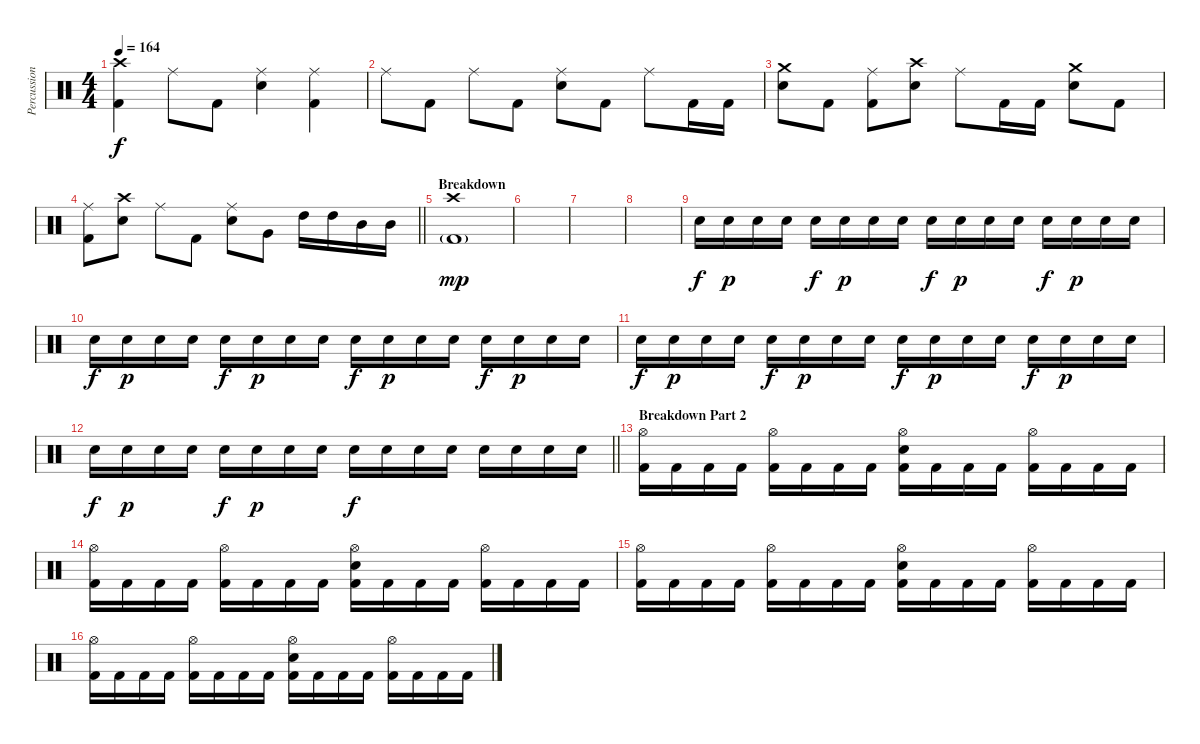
\track ("Percussions" "Percussion") {instrument percussion}
\staff {score}
\articulation defaults
\ts (4 4)
\tempo 164
\clef neutral
\ks c
("Crash high (hit)" "Kick (hit) 2").4{dy f} "Ride (middle)".8 "Kick (hit) 2".8 ("Ride (middle)" "Snare (hit) 2").4 ("Ride (middle)" "Kick (hit) 2").4 |
"Ride (middle)".8 "Kick (hit) 2".8 "Ride (middle)".8 "Kick (hit) 2".8 ("Ride (middle)" "Snare (hit) 2").8 "Kick (hit) 2".8 "Ride (middle)".8 "Kick (hit) 2".16 "Kick (hit) 2".16 |
("Crash medium (hit)" "Snare (hit) 2").8 "Kick (hit) 2".8 ("Ride (middle)" "Kick (hit) 2").8 ("Crash high (hit)" "Snare (hit) 2").8 "Ride (middle)".8 "Kick (hit) 2".16 "Kick (hit) 2".16 ("Crash medium (hit)" "Snare (hit) 2").8 "Kick (hit) 2".8 |
\barLineRight lightlight
("Ride (middle)" "Kick (hit) 2").8 ("Crash high (hit)" "Snare (hit) 2").8 "Ride (middle)".8 "Kick (hit) 2".8 ("Ride (middle)" "Snare (hit) 2").8 "Very Low Tom (hit)".8 "High Tom (hit)".16 "High Tom (hit)".16 "Mid Tom (hit)".16 "Mid Tom (hit)".16 |
\section ("" "Breakdown")
("Crash high (hit)" "Kick (hit) 2"{g}).1{dy mp} |
|
|
|
"Snare (hit) 2".16{dy f} "Snare (hit) 2".16{dy p} "Snare (hit) 2".16 "Snare (hit) 2".16 "Snare (hit) 2".16{dy f} "Snare (hit) 2".16{dy p} "Snare (hit) 2".16 "Snare (hit) 2".16 "Snare (hit) 2".16{dy f} "Snare (hit) 2".16{dy p} "Snare (hit) 2".16 "Snare (hit) 2".16 "Snare (hit) 2".16{dy f} "Snare (hit) 2".16{dy p} "Snare (hit) 2".16 "Snare (hit) 2".16 |
"Snare (hit) 2".16{dy f} "Snare (hit) 2".16{dy p} "Snare (hit) 2".16 "Snare (hit) 2".16 "Snare (hit) 2".16{dy f} "Snare (hit) 2".16{dy p} "Snare (hit) 2".16 "Snare (hit) 2".16 "Snare (hit) 2".16{dy f} "Snare (hit) 2".16{dy p} "Snare (hit) 2".16 "Snare (hit) 2".16 "Snare (hit) 2".16{dy f} "Snare (hit) 2".16{dy p} "Snare (hit) 2".16 "Snare (hit) 2".16 |
"Snare (hit) 2".16{dy f} "Snare (hit) 2".16{dy p} "Snare (hit) 2".16 "Snare (hit) 2".16 "Snare (hit) 2".16{dy f} "Snare (hit) 2".16{dy p} "Snare (hit) 2".16 "Snare (hit) 2".16 "Snare (hit) 2".16{dy f} "Snare (hit) 2".16{dy p} "Snare (hit) 2".16 "Snare (hit) 2".16 "Snare (hit) 2".16{dy f} "Snare (hit) 2".16{dy p} "Snare (hit) 2".16 "Snare (hit) 2".16 |
\barLineRight lightlight "Snare (hit) 2".16{dy f} "Snare (hit) 2".16{dy p} "Snare (hit) 2".16 "Snare (hit) 2".16 "Snare (hit) 2".16{dy f} "Snare (hit) 2".16{dy p} "Snare (hit) 2".16 "Snare (hit) 2".16 "Snare (hit) 2".16{dy f} "Snare (hit) 2".16 "Snare (hit) 2".16 "Snare (hit) 2".16 "Snare (hit) 2".16 "Snare (hit) 2".16 "Snare (hit) 2".16 "Snare (hit) 2".16
|
\section ("" "Breakdown Part 2")
("Hi-Hat (open)" "Kick (hit) 2").16 "Kick (hit) 2".16 "Kick (hit) 2".16 "Kick (hit) 2".16 ("Hi-Hat (open)" "Kick (hit) 2").16 "Kick (hit) 2".16 "Kick (hit) 2".16 "Kick (hit) 2".16 ("Hi-Hat (open)" "Snare (hit) 2" "Kick (hit) 2").16 "Kick (hit) 2".16 "Kick (hit) 2".16 "Kick (hit) 2".16 ("Hi-Hat (open)" "Kick (hit) 2").16 "Kick (hit) 2".16 "Kick (hit) 2".16 "Kick (hit) 2".16 |
("Hi-Hat (open)" "Kick (hit) 2").16 "Kick (hit) 2".16 "Kick (hit) 2".16 "Kick (hit) 2".16 ("Hi-Hat (open)" "Kick (hit) 2").16 "Kick (hit) 2".16 "Kick (hit) 2".16 "Kick (hit) 2".16 ("Hi-Hat (open)" "Snare (hit) 2" "Kick (hit) 2").16 "Kick (hit) 2".16 "Kick (hit) 2".16 "Kick (hit) 2".16 ("Hi-Hat (open)" "Kick (hit) 2").16 "Kick (hit) 2".16 "Kick (hit) 2".16 "Kick (hit) 2".16 |
("Hi-Hat (open)" "Kick (hit) 2").16 "Kick (hit) 2".16 "Kick (hit) 2".16 "Kick (hit) 2".16 ("Hi-Hat (open)" "Kick (hit) 2").16 "Kick (hit) 2".16 "Kick (hit) 2".16 "Kick (hit) 2".16 ("Hi-Hat (open)" "Snare (hit) 2" "Kick (hit) 2").16 "Kick (hit) 2".16 "Kick (hit) 2".16 "Kick (hit) 2".16 ("Hi-Hat (open)" "Kick (hit) 2").16 "Kick (hit) 2".16 "Kick (hit) 2".16 "Kick (hit) 2".16 |
("Hi-Hat (open)" "Kick (hit) 2").16 "Kick (hit) 2".16 "Kick (hit) 2".16 "Kick (hit) 2".16 ("Hi-Hat (open)" "Kick (hit) 2").16 "Kick (hit) 2".16 "Kick (hit) 2".16 "Kick (hit) 2".16 ("Hi-Hat (open)" "Snare (hit) 2" "Kick (hit) 2").16 "Kick (hit) 2".16 "Kick (hit) 2".16 "Kick (hit) 2".16 ("Hi-Hat (open)" "Kick (hit) 2").16 "Kick (hit) 2".16 "Kick (hit) 2".16 "Kick (hit) 2".16
